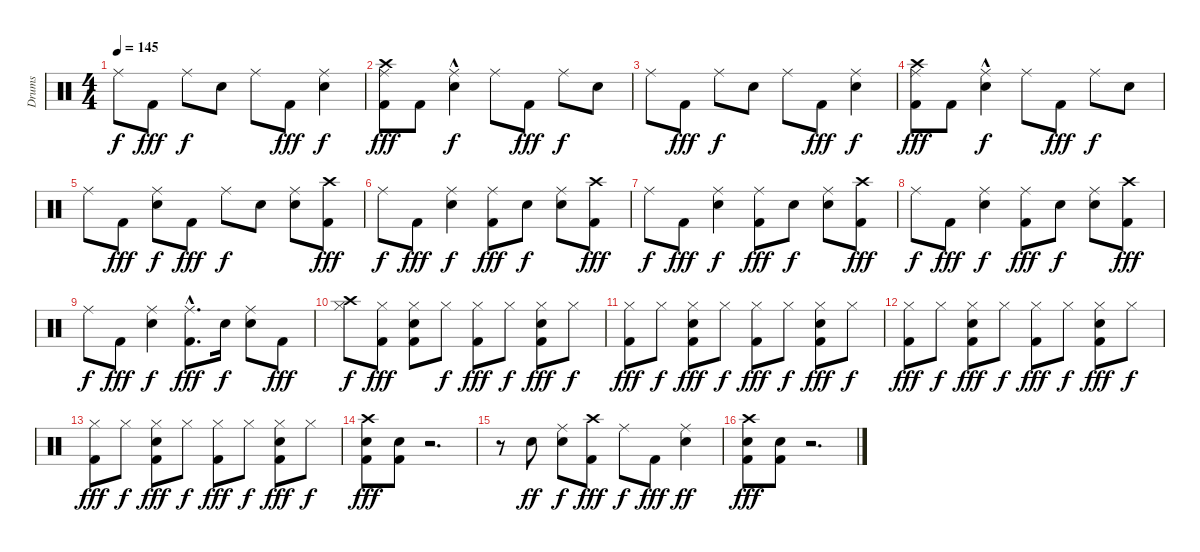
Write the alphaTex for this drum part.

\track ("Drums" "Drums") {instrument percussion}
\staff {score}
\articulation defaults
\ts (4 4)
\tempo 145
\clef neutral
\ks c "Ride (middle)".8{dy f} "Kick (hit) 2".8{dy fff} "Ride (middle)".8{dy f} "Electric Snare (hit)".8 "Ride (middle)".8 "Kick (hit) 2".8{dy fff}
("Ride (middle)" "Electric Snare (hit)").4{dy f} |
("Crash high (hit)" "Ride (middle)" "Kick (hit) 2").8{dy fff} "Kick (hit) 2".8 ("Ride (middle)" "Electric Snare (hit)"{hac}).4{dy f} "Ride (middle)".8 "Kick (hit) 2".8{dy fff} "Ride (middle)".8{dy f} "Electric Snare (hit)".8 |
"Ride (middle)".8 "Kick (hit) 2".8{dy fff} "Ride (middle)".8{dy f} "Electric Snare (hit)".8 "Ride (middle)".8 "Kick (hit) 2".8{dy fff} ("Ride (middle)" "Electric Snare (hit)").4{dy f} |
("Crash high (hit)" "Ride (middle)" "Kick (hit) 2").8{dy fff} "Kick (hit) 2".8 ("Ride (middle)" "Electric Snare (hit)"{hac}).4{dy f} "Ride (middle)".8 "Kick (hit) 2".8{dy fff} "Ride (middle)".8{dy f} "Electric Snare (hit)".8 |
"Ride (middle)".8 "Kick (hit) 2".8{dy fff} ("Ride (middle)" "Electric Snare (hit)").8{dy f} "Kick (hit) 2".8{dy fff} "Ride (middle)".8{dy f} "Electric Snare (hit)".8 ("Ride (middle)" "Electric Snare (hit)").8 ("Crash high (hit)" "Kick (hit) 2").8{dy fff} |
"Ride (middle)".8{dy f} "Kick (hit) 2".8{dy fff} ("Ride (middle)" "Electric Snare (hit)").4{dy f} ("Ride (middle)" "Kick (hit) 2").8{dy fff} "Electric Snare (hit)".8{dy f} ("Ride (middle)" "Electric Snare (hit)").8 ("Crash high (hit)" "Kick (hit) 2").8{dy fff} |
"Ride (middle)".8{dy f} "Kick (hit) 2".8{dy fff} ("Ride (middle)" "Electric Snare (hit)").4{dy f} ("Ride (middle)" "Kick (hit) 2").8{dy fff} "Electric Snare (hit)".8{dy f} ("Ride (middle)" "Electric Snare (hit)").8 ("Crash high (hit)" "Kick (hit) 2").8{dy fff} |
"Ride (middle)".8{dy f} "Kick (hit) 2".8{dy fff} ("Ride (middle)" "Electric Snare (hit)").4{dy f} ("Ride (middle)" "Kick (hit) 2").8{dy fff} "Electric Snare (hit)".8{dy f} ("Ride (middle)" "Electric Snare (hit)").8 ("Crash high (hit)" "Kick (hit) 2").8{dy fff} |
"Ride (middle)".8{dy f} "Kick (hit) 2".8{dy fff} ("Ride (middle)" "Electric Snare (hit)").4{dy f} ("Ride (middle)" "Kick (hit) 2"{hac}).8{d dy fff} "Electric Snare (hit)".16{dy f} ("Ride (middle)" "Electric Snare (hit)").8 "Kick (hit) 2".8{dy fff} |
("Crash high (hit)" "Hi-Hat (closed)").8{dy f} ("Hi-Hat (closed)" "Kick (hit) 2").8{dy fff} ("Hi-Hat (closed)" "Electric Snare (hit)" "Kick (hit) 2").8 "Hi-Hat (closed)".8{dy f} ("Hi-Hat (closed)" "Kick (hit) 2").8{dy fff} "Hi-Hat (closed)".8{dy f} ("Hi-Hat (closed)" "Electric Snare (hit)" "Kick (hit) 2").8{dy fff} "Hi-Hat (closed)".8{dy f} |
("Hi-Hat (closed)" "Kick (hit) 2").8{dy fff} "Hi-Hat (closed)".8{dy f} ("Hi-Hat (closed)" "Electric Snare (hit)" "Kick (hit) 2").8{dy fff} "Hi-Hat (closed)".8{dy f} ("Hi-Hat (closed)" "Kick (hit) 2").8{dy fff} "Hi-Hat (closed)".8{dy f} ("Hi-Hat (closed)" "Electric Snare (hit)" "Kick (hit) 2").8{dy fff} "Hi-Hat (closed)".8{dy f} |
("Hi-Hat (closed)" "Kick (hit) 2").8{dy fff} "Hi-Hat (closed)".8{dy f} ("Hi-Hat (closed)" "Electric Snare (hit)" "Kick (hit) 2").8{dy fff} "Hi-Hat (closed)".8{dy f} ("Hi-Hat (closed)" "Kick (hit) 2").8{dy fff} "Hi-Hat (closed)".8{dy f} ("Hi-Hat (closed)" "Electric Snare (hit)" "Kick (hit) 2").8{dy fff} "Hi-Hat (closed)".8{dy f} |
("Hi-Hat (closed)" "Kick (hit) 2").8{dy fff} "Hi-Hat (closed)".8{dy f} ("Hi-Hat (closed)" "Electric Snare (hit)" "Kick (hit) 2").8{dy fff} "Hi-Hat (closed)".8{dy f} ("Hi-Hat (closed)" "Kick (hit) 2").8{dy fff} "Hi-Hat (closed)".8{dy f} ("Hi-Hat (closed)" "Electric Snare (hit)" "Kick (hit) 2").8{dy fff} "Hi-Hat (closed)".8{dy f} |
("Crash high (hit)" "Electric Snare (hit)" "Kick (hit) 2").8{dy fff} ("Electric Snare (hit)" "Kick (hit) 2").8 r.2{d} |
r.8 "Electric Snare (hit)".8{dy ff} ("Ride (middle)" "Electric Snare (hit)").8{dy f} ("Crash high (hit)" "Kick (hit) 2").8{dy fff} "Ride (middle)".8{dy f} "Kick (hit) 2".8{dy fff} ("Ride (middle)" "Electric Snare (hit)").4{dy ff} |
("Crash high (hit)" "Electric Snare (hit)" "Kick (hit) 2").8{dy fff} ("Electric Snare (hit)" "Kick (hit) 2").8 r.2{d}
